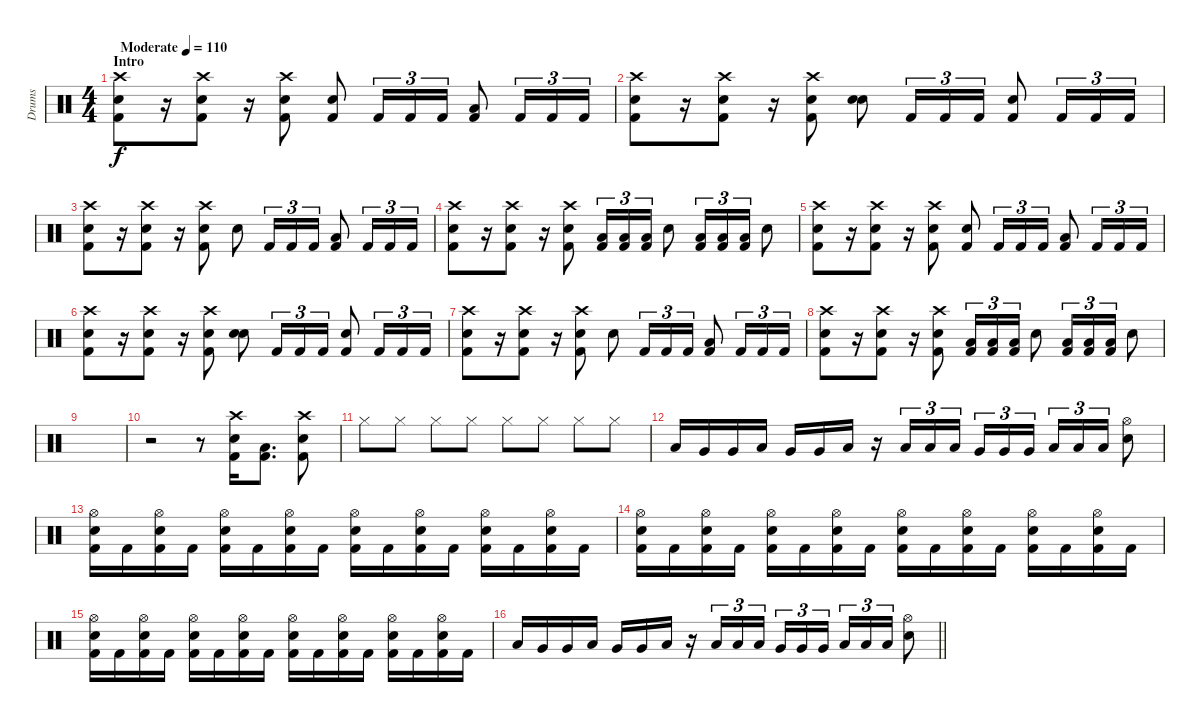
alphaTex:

\track ("Drums" "Drums") {instrument percussion}
\staff {score}
\articulation defaults
\ts (4 4)
\section ("" "Intro")
\tempo (110 "Moderate")
\clef neutral
\ks c
("Crash high (hit)" "Snare (hit) 2" "Kick (hit) 2").8{dy f} r.16 ("Crash high (hit)" "Snare (hit) 2" "Kick (hit) 2").8 r.16 ("Crash high (hit)" "Snare (hit) 2" "Kick (hit) 2").8 ("Snare (hit) 2" "Kick (hit) 2").8 "Kick (hit) 2".16{tu (3 2)} "Kick (hit) 2".16{tu (3 2)} "Kick (hit) 2".16{tu (3 2)} ("Low Tom (hit)" "Kick (hit) 2").8 "Kick (hit) 2".16{tu (3 2)} "Kick (hit) 2".16{tu (3 2)} "Kick (hit) 2".16{tu (3 2)} |
("Crash high (hit)" "Snare (hit) 2" "Kick (hit) 2").8 r.16 ("Crash high (hit)" "Snare (hit) 2" "Kick (hit) 2").8 r.16 ("Crash high (hit)" "Snare (hit) 2" "Kick (hit) 2").8 ("Snare (hit) 2" "Snare (hit) 2").8 "Kick (hit) 2".16{tu (3 2)} "Kick (hit) 2".16{tu (3 2)} "Kick (hit) 2".16{tu (3 2)} ("Snare (hit) 2" "Kick (hit) 2").8 "Kick (hit) 2".16{tu (3 2)} "Kick (hit) 2".16{tu (3 2)} "Kick (hit) 2".16{tu (3 2)} |
("Crash high (hit)" "Snare (hit) 2" "Kick (hit) 2").8 r.16 ("Crash high (hit)" "Snare (hit) 2" "Kick (hit) 2").8 r.16 ("Crash high (hit)" "Snare (hit) 2" "Kick (hit) 2").8 "Snare (hit) 2".8 "Kick (hit) 2".16{tu (3 2)} "Kick (hit) 2".16{tu (3 2)} "Kick (hit) 2".16{tu (3 2)} ("Low Tom (hit)" "Kick (hit) 2").8 "Kick (hit) 2".16{tu (3 2)} "Kick (hit) 2".16{tu (3 2)} "Kick (hit) 2".16{tu (3 2)} |
("Crash high (hit)" "Snare (hit) 2" "Kick (hit) 2").8 r.16 ("Crash high (hit)" "Snare (hit) 2" "Kick (hit) 2").8 r.16 ("Crash high (hit)" "Snare (hit) 2" "Kick (hit) 2").8 ("Low Floor Tom (hit)" "Kick (hit) 2").16{tu (3 2)} ("Low Floor Tom (hit)" "Kick (hit) 2").16{tu (3 2)} ("Low Floor Tom (hit)" "Kick (hit) 2").16{tu (3 2)} "Snare (hit) 2".8 ("Low Floor Tom (hit)" "Kick (hit) 2").16{tu (3 2)} ("Low Floor Tom (hit)" "Kick (hit) 2").16{tu (3 2)} ("Low Floor Tom (hit)" "Kick (hit) 2").16{tu (3 2)} "Snare (hit) 2".8 |
("Crash high (hit)" "Snare (hit) 2" "Kick (hit) 2").8 r.16 ("Crash high (hit)" "Snare (hit) 2" "Kick (hit) 2").8 r.16 ("Crash high (hit)" "Snare (hit) 2" "Kick (hit) 2").8 ("Snare (hit) 2" "Kick (hit) 2").8 "Kick (hit) 2".16{tu (3 2)} "Kick (hit) 2".16{tu (3 2)} "Kick (hit) 2".16{tu (3 2)} ("Low Tom (hit)" "Kick (hit) 2").8 "Kick (hit) 2".16{tu (3 2)} "Kick (hit) 2".16{tu (3 2)} "Kick (hit) 2".16{tu (3 2)} |
("Crash high (hit)" "Snare (hit) 2" "Kick (hit) 2").8 r.16 ("Crash high (hit)" "Snare (hit) 2" "Kick (hit) 2").8 r.16 ("Crash high (hit)" "Snare (hit) 2" "Kick (hit) 2").8 ("Snare (hit) 2" "Snare (hit) 2").8 "Kick (hit) 2".16{tu (3 2)} "Kick (hit) 2".16{tu (3 2)} "Kick (hit) 2".16{tu (3 2)} ("Snare (hit) 2" "Kick (hit) 2").8 "Kick (hit) 2".16{tu (3 2)} "Kick (hit) 2".16{tu (3 2)} "Kick (hit) 2".16{tu (3 2)} |
("Crash high (hit)" "Snare (hit) 2" "Kick (hit) 2").8 r.16 ("Crash high (hit)" "Snare (hit) 2" "Kick (hit) 2").8 r.16 ("Crash high (hit)" "Snare (hit) 2" "Kick (hit) 2").8 "Snare (hit) 2".8 "Kick (hit) 2".16{tu (3 2)} "Kick (hit) 2".16{tu (3 2)} "Kick (hit) 2".16{tu (3 2)} ("Low Tom (hit)" "Kick (hit) 2").8 "Kick (hit) 2".16{tu (3 2)} "Kick (hit) 2".16{tu (3 2)} "Kick (hit) 2".16{tu (3 2)} |
("Crash high (hit)" "Snare (hit) 2" "Kick (hit) 2").8 r.16 ("Crash high (hit)" "Snare (hit) 2" "Kick (hit) 2").8 r.16 ("Crash high (hit)" "Snare (hit) 2" "Kick (hit) 2").8 ("Low Floor Tom (hit)" "Kick (hit) 2").16{tu (3 2)} ("Low Floor Tom (hit)" "Kick (hit) 2").16{tu (3 2)} ("Low Floor Tom (hit)" "Kick (hit) 2").16{tu (3 2)} "Snare (hit) 2".8 ("Low Floor Tom (hit)" "Kick (hit) 2").16{tu (3 2)} ("Low Floor Tom (hit)" "Kick (hit) 2").16{tu (3 2)} ("Low Floor Tom (hit)" "Kick (hit) 2").16{tu (3 2)} "Snare (hit) 2".8 |
|
r.2 r.8 ("Crash high (hit)" "Snare (hit) 2" "Kick (hit) 2").16 ("Low Floor Tom (hit)" "Kick (hit) 2").8{d} ("Crash high (hit)" "Snare (hit) 2" "Kick (hit) 2").8 |
"Hi-Hat (closed)".8 "Hi-Hat (closed)".8 "Hi-Hat (closed)".8 "Hi-Hat (closed)".8 "Hi-Hat (closed)".8 "Hi-Hat (closed)".8 "Hi-Hat (closed)".8 "Hi-Hat (closed)".8 |
"Low Tom (hit)".16 "Very Low Tom (hit)".16 "Very Low Tom (hit)".16 "Low Tom (hit)".16 "Very Low Tom (hit)".16 "Very Low Tom (hit)".16 "Low Tom (hit)".16 r.16 "Low Tom (hit)".16{tu (3 2)} "Low Tom (hit)".16{tu (3 2)} "Low Tom (hit)".16{tu (3 2) beam splitsecondary} "Very Low Tom (hit)".16{tu (3 2)} "Very Low Tom (hit)".16{tu (3 2)} "Very Low Tom (hit)".16{tu (3 2)} "Low Floor Tom (hit)".16{tu (3 2)} "Low Floor Tom (hit)".16{tu (3 2)} "Low Floor Tom (hit)".16{tu (3 2)} ("Hi-Hat (open)" "Snare (hit) 2").8 |
("Hi-Hat (open)" "Snare (hit) 2" "Kick (hit) 2").16 "Kick (hit) 2".16 ("Hi-Hat (open)" "Snare (hit) 2" "Kick (hit) 2").16 "Kick (hit) 2".16 ("Hi-Hat (open)" "Snare (hit) 2" "Kick (hit) 2").16 "Kick (hit) 2".16 ("Hi-Hat (open)" "Snare (hit) 2" "Kick (hit) 2").16 "Kick (hit) 2".16 ("Hi-Hat (open)" "Snare (hit) 2" "Kick (hit) 2").16 "Kick (hit) 2".16 ("Hi-Hat (open)" "Snare (hit) 2" "Kick (hit) 2").16 "Kick (hit) 2".16 ("Hi-Hat (open)" "Snare (hit) 2" "Kick (hit) 2").16 "Kick (hit) 2".16 ("Hi-Hat (open)" "Snare (hit) 2" "Kick (hit) 2").16 "Kick (hit) 2".16 |
("Hi-Hat (open)" "Snare (hit) 2" "Kick (hit) 2").16 "Kick (hit) 2".16 ("Hi-Hat (open)" "Snare (hit) 2" "Kick (hit) 2").16 "Kick (hit) 2".16 ("Hi-Hat (open)" "Snare (hit) 2" "Kick (hit) 2").16 "Kick (hit) 2".16 ("Hi-Hat (open)" "Snare (hit) 2" "Kick (hit) 2").16 "Kick (hit) 2".16 ("Hi-Hat (open)" "Snare (hit) 2" "Kick (hit) 2").16 "Kick (hit) 2".16 ("Hi-Hat (open)" "Snare (hit) 2" "Kick (hit) 2").16 "Kick (hit) 2".16 ("Hi-Hat (open)" "Snare (hit) 2" "Kick (hit) 2").16 "Kick (hit) 2".16 ("Hi-Hat (open)" "Snare (hit) 2" "Kick (hit) 2").16 "Kick (hit) 2".16 |
("Hi-Hat (open)" "Snare (hit) 2" "Kick (hit) 2").16 "Kick (hit) 2".16 ("Hi-Hat (open)" "Snare (hit) 2" "Kick (hit) 2").16 "Kick (hit) 2".16 ("Hi-Hat (open)" "Snare (hit) 2" "Kick (hit) 2").16 "Kick (hit) 2".16 ("Hi-Hat (open)" "Snare (hit) 2" "Kick (hit) 2").16 "Kick (hit) 2".16 ("Hi-Hat (open)" "Snare (hit) 2" "Kick (hit) 2").16 "Kick (hit) 2".16 ("Hi-Hat (open)" "Snare (hit) 2" "Kick (hit) 2").16 "Kick (hit) 2".16 ("Hi-Hat (open)" "Snare (hit) 2" "Kick (hit) 2").16 "Kick (hit) 2".16 ("Hi-Hat (open)" "Snare (hit) 2" "Kick (hit) 2").16 "Kick (hit) 2".16 |
\barLineRight lightlight "Low Tom (hit)".16 "Very Low Tom (hit)".16 "Very Low Tom (hit)".16 "Low Tom (hit)".16 "Very Low Tom (hit)".16 "Very Low Tom (hit)".16 "Low Tom (hit)".16
r.16 "Low Tom (hit)".16{tu (3 2)} "Low Tom (hit)".16{tu (3 2)} "Low Tom (hit)".16{tu (3 2) beam splitsecondary} "Very Low Tom (hit)".16{tu (3 2)} "Very Low Tom (hit)".16{tu (3 2)} "Very Low Tom (hit)".16{tu (3 2)} "Low Floor Tom (hit)".16{tu (3 2)} "Low Floor Tom (hit)".16{tu (3 2)} "Low Floor Tom (hit)".16{tu (3 2)} ("Hi-Hat (open)" "Snare (hit) 2").8
